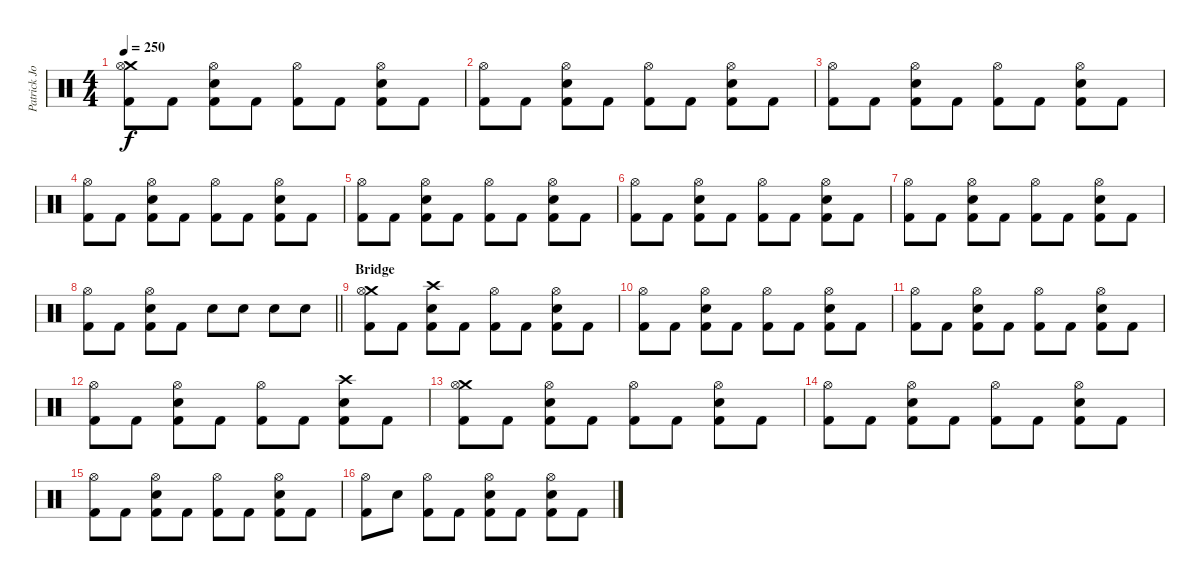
\track ("Patrick Johansson" "Patrick Jo") {instrument percussion}
\staff {score}
\articulation defaults
\ts (4 4)
\tempo 250
\clef neutral
\ks c
("Crash medium (hit)" "Hi-Hat (open)" "Kick (hit) 2").8{dy f} "Kick (hit) 2".8 ("Hi-Hat (open)" "Snare (hit) 2" "Kick (hit) 2").8 "Kick (hit) 2".8 ("Hi-Hat (open)" "Kick (hit) 2").8 "Kick (hit) 2".8 ("Hi-Hat (open)" "Snare (hit) 2" "Kick (hit) 2").8 "Kick (hit) 2".8 |
("Hi-Hat (open)" "Kick (hit) 2").8 "Kick (hit) 2".8 ("Hi-Hat (open)" "Snare (hit) 2" "Kick (hit) 2").8 "Kick (hit) 2".8 ("Hi-Hat (open)" "Kick (hit) 2").8 "Kick (hit) 2".8 ("Hi-Hat (open)" "Snare (hit) 2" "Kick (hit) 2").8 "Kick (hit) 2".8 |
("Hi-Hat (open)" "Kick (hit) 2").8 "Kick (hit) 2".8 ("Hi-Hat (open)" "Snare (hit) 2" "Kick (hit) 2").8 "Kick (hit) 2".8 ("Hi-Hat (open)" "Kick (hit) 2").8 "Kick (hit) 2".8 ("Hi-Hat (open)" "Snare (hit) 2" "Kick (hit) 2").8 "Kick (hit) 2".8 |
("Hi-Hat (open)" "Kick (hit) 2").8 "Kick (hit) 2".8 ("Hi-Hat (open)" "Snare (hit) 2" "Kick (hit) 2").8 "Kick (hit) 2".8 ("Hi-Hat (open)" "Kick (hit) 2").8 "Kick (hit) 2".8 ("Hi-Hat (open)" "Snare (hit) 2" "Kick (hit) 2").8 "Kick (hit) 2".8 |
("Hi-Hat (open)" "Kick (hit) 2").8 "Kick (hit) 2".8 ("Hi-Hat (open)" "Snare (hit) 2" "Kick (hit) 2").8 "Kick (hit) 2".8 ("Hi-Hat (open)" "Kick (hit) 2").8 "Kick (hit) 2".8 ("Hi-Hat (open)" "Snare (hit) 2" "Kick (hit) 2").8 "Kick (hit) 2".8 |
("Hi-Hat (open)" "Kick (hit) 2").8 "Kick (hit) 2".8 ("Hi-Hat (open)" "Snare (hit) 2" "Kick (hit) 2").8 "Kick (hit) 2".8 ("Hi-Hat (open)" "Kick (hit) 2").8 "Kick (hit) 2".8 ("Hi-Hat (open)" "Snare (hit) 2" "Kick (hit) 2").8 "Kick (hit) 2".8 |
("Hi-Hat (open)" "Kick (hit) 2").8 "Kick (hit) 2".8 ("Hi-Hat (open)" "Snare (hit) 2" "Kick (hit) 2").8 "Kick (hit) 2".8 ("Hi-Hat (open)" "Kick (hit) 2").8 "Kick (hit) 2".8 ("Hi-Hat (open)" "Snare (hit) 2" "Kick (hit) 2").8 "Kick (hit) 2".8 |
\barLineRight lightlight
("Hi-Hat (open)" "Kick (hit) 2").8 "Kick (hit) 2".8 ("Hi-Hat (open)" "Snare (hit) 2" "Kick (hit) 2").8 "Kick (hit) 2".8 "Snare (hit) 2".8 "Snare (hit) 2".8 "Snare (hit) 2".8 "Snare (hit) 2".8 |
\section ("" "Bridge")
("Crash medium (hit)" "Hi-Hat (open)" "Kick (hit) 2").8 "Kick (hit) 2".8 ("Crash high (hit)" "Snare (hit) 2" "Kick (hit) 2").8 "Kick (hit) 2".8 ("Hi-Hat (open)" "Kick (hit) 2").8 "Kick (hit) 2".8 ("Hi-Hat (open)" "Snare (hit) 2" "Kick (hit) 2").8 "Kick (hit) 2".8 |
("Hi-Hat (open)" "Kick (hit) 2").8 "Kick (hit) 2".8 ("Hi-Hat (open)" "Snare (hit) 2" "Kick (hit) 2").8 "Kick (hit) 2".8 ("Hi-Hat (open)" "Kick (hit) 2").8 "Kick (hit) 2".8 ("Hi-Hat (open)" "Snare (hit) 2" "Kick (hit) 2").8 "Kick (hit) 2".8 |
("Hi-Hat (open)" "Kick (hit) 2").8 "Kick (hit) 2".8 ("Hi-Hat (open)" "Snare (hit) 2" "Kick (hit) 2").8 "Kick (hit) 2".8 ("Hi-Hat (open)" "Kick (hit) 2").8 "Kick (hit) 2".8 ("Hi-Hat (open)" "Snare (hit) 2" "Kick (hit) 2").8 "Kick (hit) 2".8 |
("Hi-Hat (open)" "Kick (hit) 2").8 "Kick (hit) 2".8 ("Hi-Hat (open)" "Snare (hit) 2" "Kick (hit) 2").8 "Kick (hit) 2".8 ("Hi-Hat (open)" "Kick (hit) 2").8 "Kick (hit) 2".8 ("Crash high (hit)" "Snare (hit) 2" "Kick (hit) 2").8 "Kick (hit) 2".8 |
("Crash medium (hit)" "Hi-Hat (open)" "Kick (hit) 2").8 "Kick (hit) 2".8 ("Hi-Hat (open)" "Snare (hit) 2" "Kick (hit) 2").8 "Kick (hit) 2".8 ("Hi-Hat (open)" "Kick (hit) 2").8 "Kick (hit) 2".8 ("Hi-Hat (open)" "Snare (hit) 2" "Kick (hit) 2").8 "Kick (hit) 2".8 |
("Hi-Hat (open)" "Kick (hit) 2").8 "Kick (hit) 2".8 ("Hi-Hat (open)" "Snare (hit) 2" "Kick (hit) 2").8 "Kick (hit) 2".8 ("Hi-Hat (open)" "Kick (hit) 2").8 "Kick (hit) 2".8 ("Hi-Hat (open)" "Snare (hit) 2" "Kick (hit) 2").8 "Kick (hit) 2".8 |
("Hi-Hat (open)" "Kick (hit) 2").8 "Kick (hit) 2".8 ("Hi-Hat (open)" "Snare (hit) 2" "Kick (hit) 2").8 "Kick (hit) 2".8 ("Hi-Hat (open)" "Kick (hit) 2").8 "Kick (hit) 2".8 ("Hi-Hat (open)" "Snare (hit) 2" "Kick (hit) 2").8 "Kick (hit) 2".8 |
("Hi-Hat (open)" "Kick (hit) 2").8 "Snare (hit) 2".8 ("Hi-Hat (open)" "Kick (hit) 2").8 "Kick (hit) 2".8 ("Hi-Hat (open)" "Snare (hit) 2" "Kick (hit) 2").8 "Kick (hit) 2".8 ("Hi-Hat (open)" "Snare (hit) 2" "Kick (hit) 2").8 "Kick (hit) 2".8
